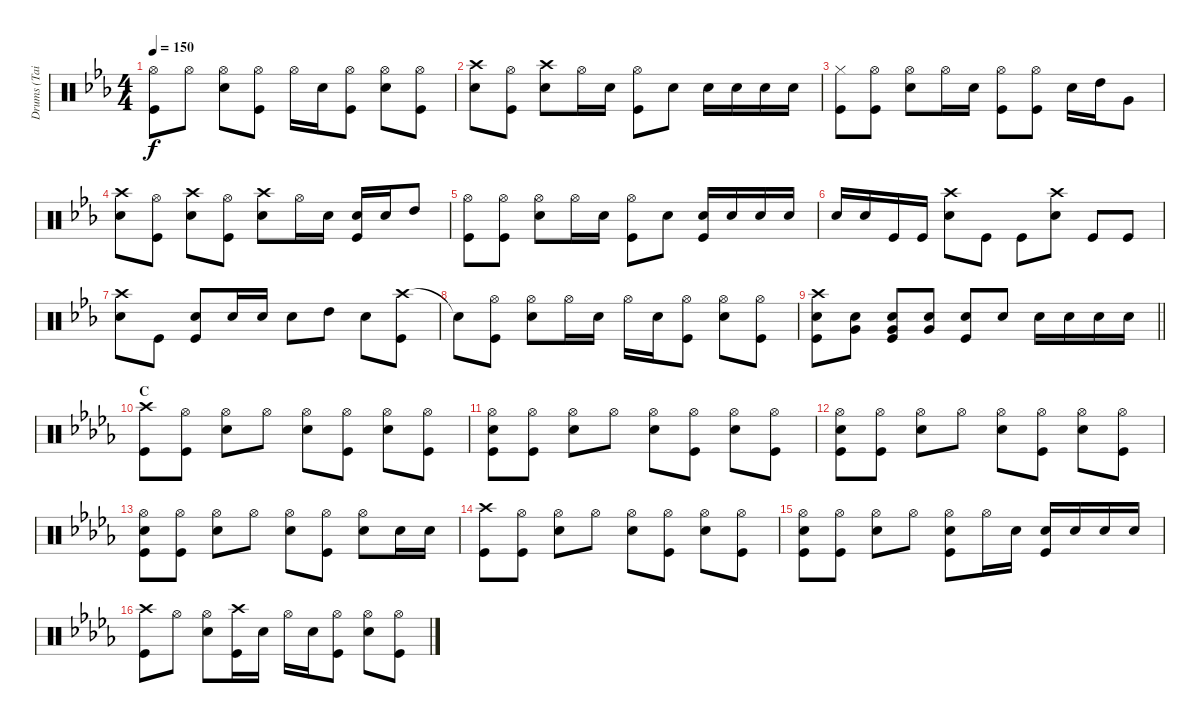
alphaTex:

\track ("Drums (Tainaka Ritsu)" "Drums (Tai") {instrument percussion}
\staff {score}
\articulation defaults
\ts (4 4)
\tempo 150
\clef neutral
\ks eb
("Hi-Hat (open)" "Kick (hit)").8{dy f} "Hi-Hat (open)".8 ("Hi-Hat (open)" "Snare (hit) 2").8 ("Hi-Hat (open)" "Kick (hit)").8 "Hi-Hat (open)".16 "Snare (hit) 2".16 ("Hi-Hat (open)" "Kick (hit)").8 ("Hi-Hat (open)" "Snare (hit) 2").8 ("Hi-Hat (open)" "Kick (hit)").8 |
("Crash high (hit)" "Snare (hit) 2").8 ("Hi-Hat (open)" "Kick (hit)").8 ("Crash high (hit)" "Snare (hit) 2").8 "Hi-Hat (open)".16 "Snare (hit) 2".16 ("Hi-Hat (open)" "Kick (hit)").8 "Snare (hit) 2".8 "Snare (hit) 2".16 "Snare (hit) 2".16 "Snare (hit) 2".16 "Snare (hit) 2".16 |
("Hi-Hat (closed)" "Kick (hit)").8 ("Hi-Hat (open)" "Kick (hit)").8 ("Hi-Hat (open)" "Snare (hit) 2").8 "Hi-Hat (open)".16 "Snare (hit) 2".16 ("Hi-Hat (open)" "Kick (hit)").8 ("Hi-Hat (open)" "Kick (hit)").8 "Snare (hit) 2".16 "High Tom (hit)".16 "Very Low Tom (hit)".8 |
("Crash high (hit)" "Snare (hit) 2").8 ("Hi-Hat (open)" "Kick (hit)").8 ("Crash high (hit)" "Snare (hit) 2").8 ("Hi-Hat (open)" "Kick (hit)").8 ("Crash high (hit)" "Snare (hit) 2").8 "Hi-Hat (open)".16 "Snare (hit) 2".16 ("Snare (hit) 2" "Kick (hit)").16 "Snare (hit) 2".16 "High Tom (hit)".8 |
("Hi-Hat (open)" "Kick (hit)").8 ("Hi-Hat (open)" "Kick (hit)").8 ("Hi-Hat (open)" "Snare (hit) 2").8 "Hi-Hat (open)".16 "Snare (hit) 2".16 ("Hi-Hat (open)" "Kick (hit)").8 "Snare (hit) 2".8 ("Snare (hit) 2" "Kick (hit)").16 "Snare (hit) 2".16 "Snare (hit) 2".16 "Snare (hit) 2".16 |
"Snare (hit) 2".16 "Snare (hit) 2".16 "Kick (hit)".16 "Kick (hit)".16 ("Crash high (hit)" "Snare (hit) 2").8 "Kick (hit)".8 "Kick (hit)".8 ("Crash high (hit)" "Snare (hit) 2").8 "Kick (hit)".8 "Kick (hit)".8 |
("Crash high (hit)" "Snare (hit) 2").8 "Kick (hit)".8 ("Snare (hit) 2" "Kick (hit)").8 "Snare (hit) 2".16 "Snare (hit) 2".16 "Snare (hit) 2".8 "High Tom (hit)".8 "Snare (hit) 2".8 ("Crash high (hit)" "Kick (hit)").8 |
"Snare (hit)"{t}.8 ("Hi-Hat (open)" "Kick (hit)").8 ("Hi-Hat (open)" "Snare (hit) 2").8 "Hi-Hat (open)".16 "Snare (hit) 2".16 "Hi-Hat (open)".16 "Snare (hit) 2".16 ("Hi-Hat (open)" "Kick (hit)").8 ("Hi-Hat (open)" "Snare (hit) 2").8 ("Hi-Hat (open)" "Kick (hit)").8 |
\barLineRight lightlight
("Crash high (hit)" "Snare (hit) 2" "Kick (hit)").8 ("Snare (hit) 2" "Very Low Tom (hit)").8 ("Snare (hit) 2" "Very Low Tom (hit)" "Kick (hit)").8 ("Snare (hit) 2" "Very Low Tom (hit)").8 ("Snare (hit) 2" "Kick (hit)").8 "Snare (hit) 2".8 "Snare (hit) 2".16 "Snare (hit) 2".16 "Snare (hit) 2".16 "Snare (hit) 2".16 |
\section ("" "C")
\ks db
("Crash high (hit)" "Kick (hit)").8 ("Hi-Hat (open)" "Kick (hit)").8 ("Hi-Hat (open)" "Snare (hit) 2").8 "Hi-Hat (open)".8 ("Hi-Hat (open)" "Snare (hit) 2").8 ("Hi-Hat (open)" "Kick (hit)").8 ("Hi-Hat (open)" "Snare (hit) 2").8 ("Hi-Hat (open)" "Kick (hit)").8 |
("Hi-Hat (open)" "Snare (hit) 2" "Kick (hit)").8 ("Hi-Hat (open)" "Kick (hit)").8 ("Hi-Hat (open)" "Snare (hit) 2").8 "Hi-Hat (open)".8 ("Hi-Hat (open)" "Snare (hit) 2").8 ("Hi-Hat (open)" "Kick (hit)").8 ("Hi-Hat (open)" "Snare (hit) 2").8 ("Hi-Hat (open)" "Kick (hit)").8 |
("Hi-Hat (open)" "Snare (hit) 2" "Kick (hit)").8 ("Hi-Hat (open)" "Kick (hit)").8 ("Hi-Hat (open)" "Snare (hit) 2").8 "Hi-Hat (open)".8 ("Hi-Hat (open)" "Snare (hit) 2").8 ("Hi-Hat (open)" "Kick (hit)").8 ("Hi-Hat (open)" "Snare (hit) 2").8 ("Hi-Hat (open)" "Kick (hit)").8 |
("Hi-Hat (open)" "Snare (hit) 2" "Kick (hit)").8 ("Hi-Hat (open)" "Kick (hit)").8 ("Hi-Hat (open)" "Snare (hit) 2").8 "Hi-Hat (open)".8 ("Hi-Hat (open)" "Snare (hit) 2").8 ("Hi-Hat (open)" "Kick (hit)").8 ("Hi-Hat (open)" "Snare (hit) 2").8 "Snare (hit) 2".16 "Snare (hit) 2".16 |
("Crash high (hit)" "Kick (hit)").8 ("Hi-Hat (open)" "Kick (hit)").8 ("Hi-Hat (open)" "Snare (hit) 2").8 "Hi-Hat (open)".8 ("Hi-Hat (open)" "Snare (hit) 2").8 ("Hi-Hat (open)" "Kick (hit)").8 ("Hi-Hat (open)" "Snare (hit) 2").8 ("Hi-Hat (open)" "Kick (hit)").8 |
("Hi-Hat (open)" "Snare (hit) 2" "Kick (hit)").8 ("Hi-Hat (open)" "Kick (hit)").8 ("Hi-Hat (open)" "Snare (hit) 2").8 "Hi-Hat (open)".8 ("Hi-Hat (open)" "Snare (hit) 2" "Kick (hit)").8 "Hi-Hat (open)".16 "Snare (hit) 2".16 ("Snare (hit) 2" "Kick (hit)").16 "Snare (hit) 2".16 "Snare (hit) 2".16 "Snare (hit) 2".16 |
("Crash high (hit)" "Kick (hit)").8 "Hi-Hat (open)".8 ("Hi-Hat (open)" "Snare (hit) 2").8 ("Crash high (hit)" "Kick (hit)").16 "Snare (hit) 2".16 "Hi-Hat (open)".16 "Snare (hit) 2".16 ("Hi-Hat (open)" "Kick (hit)").8 ("Hi-Hat (open)" "Snare (hit) 2").8 ("Hi-Hat (open)" "Kick (hit)").8
